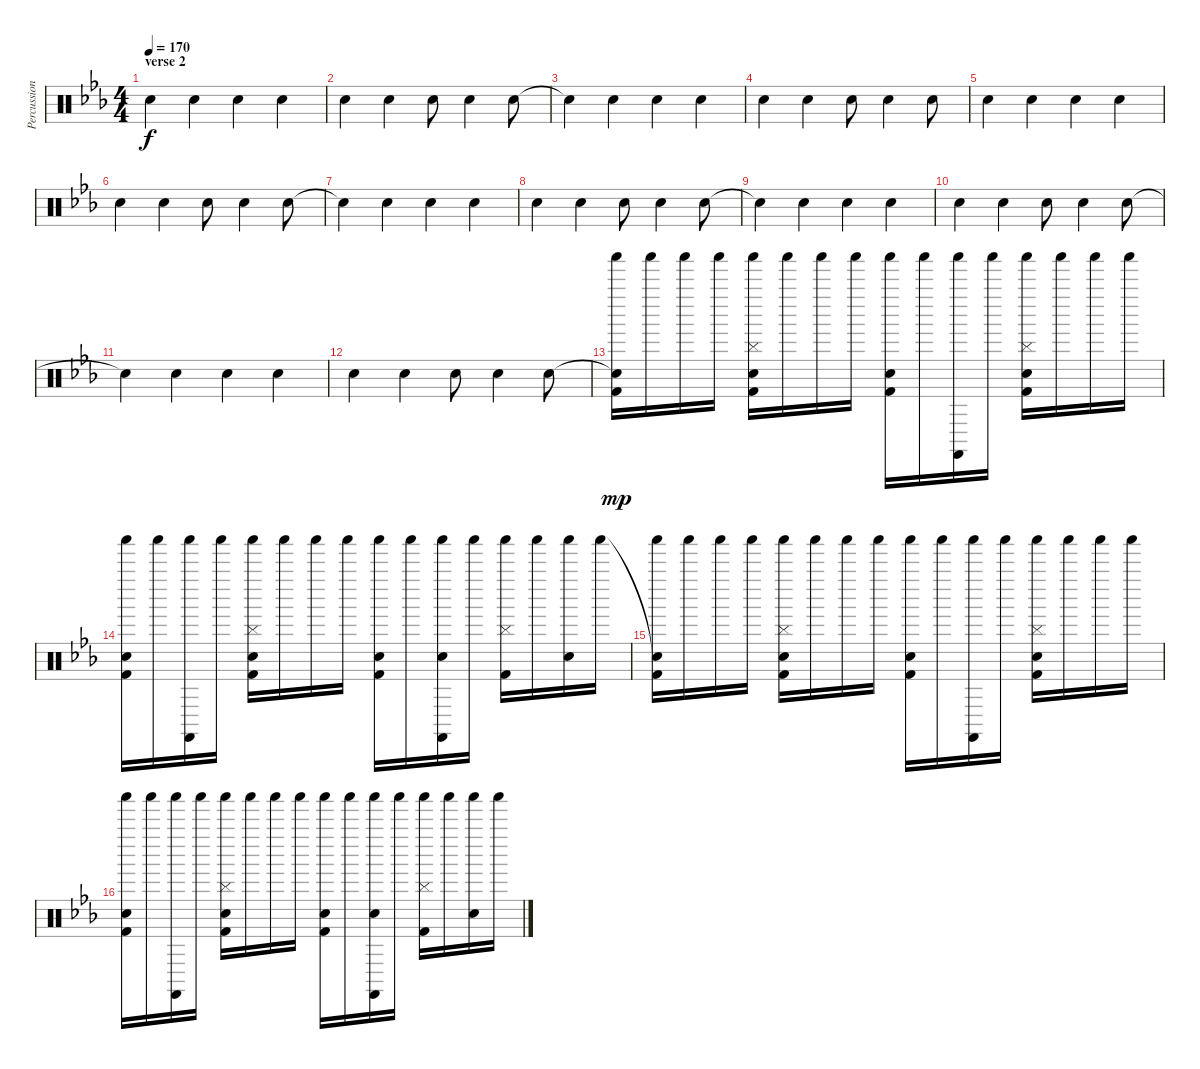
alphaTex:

\track ("Percussion" "Percussion") {instrument percussion}
\staff {score}
\articulation defaults
\ts (4 4)
\section ("" "verse 2")
\tempo 170
\clef neutral
\ks cminor "Hand Clap (hit)".4{dy f} "Hand Clap (hit)".4 "Hand Clap (hit)".4 "Hand Clap (hit)".4
|
"Hand Clap (hit)".4 "Hand Clap (hit)".4 "Hand Clap (hit)".8 "Hand Clap (hit)".4 "Hand Clap (hit)".8 |
"Snare (hit)"{t}.4 "Hand Clap (hit)".4 "Hand Clap (hit)".4 "Hand Clap (hit)".4 |
"Hand Clap (hit)".4 "Hand Clap (hit)".4 "Hand Clap (hit)".8 "Hand Clap (hit)".4 "Hand Clap (hit)".8 |
"Hand Clap (hit)".4 "Hand Clap (hit)".4 "Hand Clap (hit)".4 "Hand Clap (hit)".4 |
"Hand Clap (hit)".4 "Hand Clap (hit)".4 "Hand Clap (hit)".8 "Hand Clap (hit)".4 "Hand Clap (hit)".8 |
"Snare (hit)"{t}.4 "Hand Clap (hit)".4 "Hand Clap (hit)".4 "Hand Clap (hit)".4 |
"Hand Clap (hit)".4 "Hand Clap (hit)".4 "Hand Clap (hit)".8 "Hand Clap (hit)".4 "Hand Clap (hit)".8 |
"Snare (hit)"{t}.4 "Hand Clap (hit)".4 "Hand Clap (hit)".4 "Hand Clap (hit)".4 |
"Hand Clap (hit)".4 "Hand Clap (hit)".4 "Hand Clap (hit)".8 "Hand Clap (hit)".4 "Hand Clap (hit)".8 |
"Snare (hit)"{t}.4 "Hand Clap (hit)".4 "Hand Clap (hit)".4 "Hand Clap (hit)".4 |
"Hand Clap (hit)".4 "Hand Clap (hit)".4 "Hand Clap (hit)".8 "Hand Clap (hit)".4 "Hand Clap (hit)".8 |
("Snare (hit)"{t} "Kick (hit) 2" "Shaker (hit)").16{dy mp} "Shaker (hit)".16 "Shaker (hit)".16 "Shaker (hit)".16 ("Hand Clap (hit)" "Cymbal (hit)" "Kick (hit) 2" "Shaker (hit)").16 "Shaker (hit)".16 "Shaker (hit)".16 "Shaker (hit)".16 ("Hand Clap (hit)" "Kick (hit) 2" "Shaker (hit)").16 "Shaker (hit)".16 ("Castanets (hit)" "Shaker (hit)").16 "Shaker (hit)".16 ("Hand Clap (hit)" "Cymbal (hit)" "Kick (hit) 2" "Shaker (hit)").16 "Shaker (hit)".16 "Shaker (hit)".16 "Shaker (hit)".16 |
("Hand Clap (hit)" "Kick (hit) 2" "Shaker (hit)").16 "Shaker (hit)".16 ("Castanets (hit)" "Shaker (hit)").16 "Shaker (hit)".16 ("Hand Clap (hit)" "Cymbal (hit)" "Kick (hit) 2" "Shaker (hit)").16 "Shaker (hit)".16 "Shaker (hit)".16 "Shaker (hit)".16 ("Hand Clap (hit)" "Kick (hit) 2" "Shaker (hit)").16 "Shaker (hit)".16 ("Hand Clap (hit)" "Castanets (hit)" "Shaker (hit)").16 "Shaker (hit)".16 ("Cymbal (hit)" "Kick (hit) 2" "Shaker (hit)").16 "Shaker (hit)".16 ("Hand Clap (hit)" "Shaker (hit)").16 "Shaker (hit)".16 |
("Snare (hit)"{t} "Kick (hit) 2" "Shaker (hit)").16 "Shaker (hit)".16 "Shaker (hit)".16 "Shaker (hit)".16 ("Hand Clap (hit)" "Cymbal (hit)" "Kick (hit) 2" "Shaker (hit)").16 "Shaker (hit)".16 "Shaker (hit)".16 "Shaker (hit)".16 ("Hand Clap (hit)" "Kick (hit) 2" "Shaker (hit)").16 "Shaker (hit)".16 ("Castanets (hit)" "Shaker (hit)").16 "Shaker (hit)".16 ("Hand Clap (hit)" "Cymbal (hit)" "Kick (hit) 2" "Shaker (hit)").16 "Shaker (hit)".16 "Shaker (hit)".16 "Shaker (hit)".16 |
("Hand Clap (hit)" "Kick (hit) 2" "Shaker (hit)").16 "Shaker (hit)".16 ("Castanets (hit)" "Shaker (hit)").16 "Shaker (hit)".16 ("Hand Clap (hit)" "Cymbal (hit)" "Kick (hit) 2" "Shaker (hit)").16 "Shaker (hit)".16 "Shaker (hit)".16 "Shaker (hit)".16 ("Hand Clap (hit)" "Kick (hit) 2" "Shaker (hit)").16 "Shaker (hit)".16 ("Hand Clap (hit)" "Castanets (hit)" "Shaker (hit)").16 "Shaker (hit)".16 ("Cymbal (hit)" "Kick (hit) 2" "Shaker (hit)").16 "Shaker (hit)".16 ("Hand Clap (hit)" "Shaker (hit)").16 "Shaker (hit)".16
